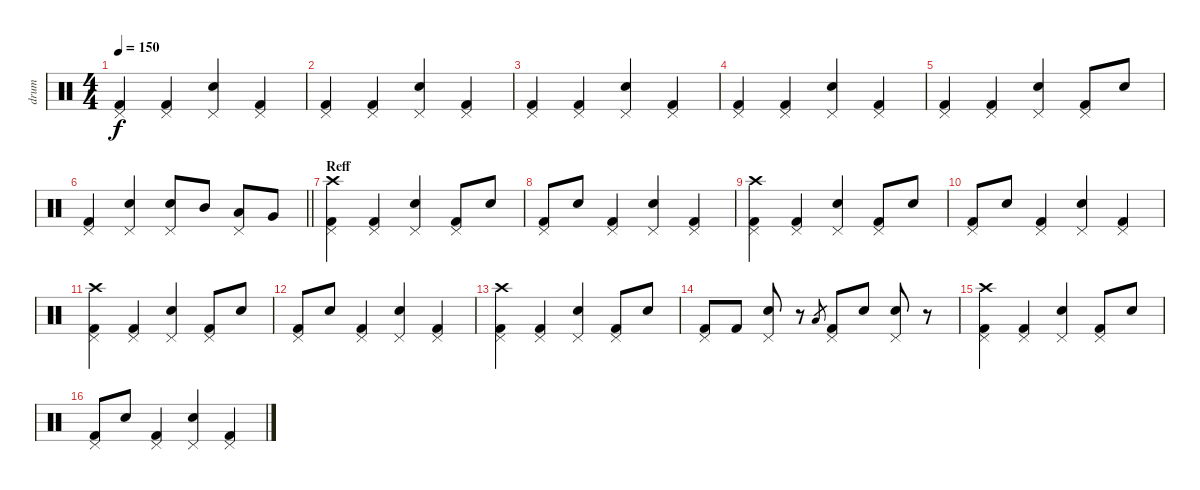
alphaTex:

\track ("drum" "drum") {instrument percussion}
\staff {score}
\articulation defaults
\ts (4 4)
\tempo 150
\clef neutral
\ks c
("Pedal Hi-Hat (hit)" "Kick (hit) 2").4{dy f} ("Pedal Hi-Hat (hit)" "Kick (hit) 2").4 ("Pedal Hi-Hat (hit)" "Electric Snare (hit)").4 ("Pedal Hi-Hat (hit)" "Kick (hit) 2").4 |
("Pedal Hi-Hat (hit)" "Kick (hit) 2").4 ("Pedal Hi-Hat (hit)" "Kick (hit) 2").4 ("Pedal Hi-Hat (hit)" "Electric Snare (hit)").4 ("Pedal Hi-Hat (hit)" "Kick (hit) 2").4 |
("Pedal Hi-Hat (hit)" "Kick (hit) 2").4 ("Pedal Hi-Hat (hit)" "Kick (hit) 2").4 ("Pedal Hi-Hat (hit)" "Electric Snare (hit)").4 ("Pedal Hi-Hat (hit)" "Kick (hit) 2").4 |
("Pedal Hi-Hat (hit)" "Kick (hit) 2").4 ("Pedal Hi-Hat (hit)" "Kick (hit) 2").4 ("Pedal Hi-Hat (hit)" "Electric Snare (hit)").4 ("Pedal Hi-Hat (hit)" "Kick (hit) 2").4 |
("Pedal Hi-Hat (hit)" "Kick (hit) 2").4 ("Pedal Hi-Hat (hit)" "Kick (hit) 2").4 ("Pedal Hi-Hat (hit)" "Electric Snare (hit)").4 ("Pedal Hi-Hat (hit)" "Kick (hit) 2").8 "Electric Snare (hit)".8 |
\barLineRight lightlight
("Pedal Hi-Hat (hit)" "Kick (hit) 2").4 ("Pedal Hi-Hat (hit)" "Electric Snare (hit)").4 ("Pedal Hi-Hat (hit)" "Electric Snare (hit)").8 "Mid Tom (hit)".8 ("Pedal Hi-Hat (hit)" "Low Tom (hit)").8 "Very Low Tom (hit)".8 |
\section ("" "Reff")
("Crash high (hit)" "Pedal Hi-Hat (hit)" "Kick (hit) 2").4 ("Pedal Hi-Hat (hit)" "Kick (hit) 2").4 ("Pedal Hi-Hat (hit)" "Electric Snare (hit)").4 ("Pedal Hi-Hat (hit)" "Kick (hit) 2").8 "Electric Snare (hit)".8 |
("Pedal Hi-Hat (hit)" "Kick (hit) 2").8 "Electric Snare (hit)".8 ("Pedal Hi-Hat (hit)" "Kick (hit) 2").4 ("Pedal Hi-Hat (hit)" "Electric Snare (hit)").4 ("Pedal Hi-Hat (hit)" "Kick (hit) 2").4 |
("Crash high (hit)" "Pedal Hi-Hat (hit)" "Kick (hit) 2").4 ("Pedal Hi-Hat (hit)" "Kick (hit) 2").4 ("Pedal Hi-Hat (hit)" "Electric Snare (hit)").4 ("Pedal Hi-Hat (hit)" "Kick (hit) 2").8 "Electric Snare (hit)".8 |
("Pedal Hi-Hat (hit)" "Kick (hit) 2").8 "Electric Snare (hit)".8 ("Pedal Hi-Hat (hit)" "Kick (hit) 2").4 ("Pedal Hi-Hat (hit)" "Electric Snare (hit)").4 ("Pedal Hi-Hat (hit)" "Kick (hit) 2").4 |
("Crash high (hit)" "Pedal Hi-Hat (hit)" "Kick (hit) 2").4 ("Pedal Hi-Hat (hit)" "Kick (hit) 2").4 ("Pedal Hi-Hat (hit)" "Electric Snare (hit)").4 ("Pedal Hi-Hat (hit)" "Kick (hit) 2").8 "Electric Snare (hit)".8 |
("Pedal Hi-Hat (hit)" "Kick (hit) 2").8 "Electric Snare (hit)".8 ("Pedal Hi-Hat (hit)" "Kick (hit) 2").4 ("Pedal Hi-Hat (hit)" "Electric Snare (hit)").4 ("Pedal Hi-Hat (hit)" "Kick (hit) 2").4 |
("Crash high (hit)" "Pedal Hi-Hat (hit)" "Kick (hit) 2").4 ("Pedal Hi-Hat (hit)" "Kick (hit) 2").4 ("Pedal Hi-Hat (hit)" "Electric Snare (hit)").4 ("Pedal Hi-Hat (hit)" "Kick (hit) 2").8 "Electric Snare (hit)".8 |
("Pedal Hi-Hat (hit)" "Kick (hit) 2").8 "Kick (hit) 2".8 ("Pedal Hi-Hat (hit)" "Electric Snare (hit)").8 r.8 "Low Tom (hit)".8{gr} ("Pedal Hi-Hat (hit)" "Kick (hit) 2").8 "Electric Snare (hit)".8 ("Pedal Hi-Hat (hit)" "Electric Snare (hit)").8 r.8 |
("Crash high (hit)" "Pedal Hi-Hat (hit)" "Kick (hit) 2").4 ("Pedal Hi-Hat (hit)" "Kick (hit) 2").4 ("Pedal Hi-Hat (hit)" "Electric Snare (hit)").4 ("Pedal Hi-Hat (hit)" "Kick (hit) 2").8 "Electric Snare (hit)".8 |
("Pedal Hi-Hat (hit)" "Kick (hit) 2").8 "Electric Snare (hit)".8 ("Pedal Hi-Hat (hit)" "Kick (hit) 2").4 ("Pedal Hi-Hat (hit)" "Electric Snare (hit)").4 ("Pedal Hi-Hat (hit)" "Kick (hit) 2").4
